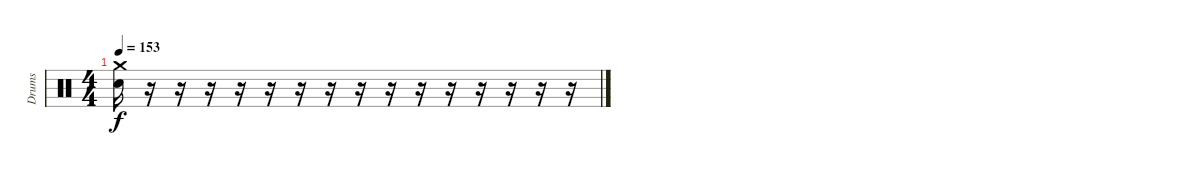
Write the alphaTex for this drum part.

\track ("Drums" "Drums") {instrument percussion}
\staff {score}
\articulation defaults
\ts (4 4)
\tempo 153
\clef neutral
\ks c
("Crash medium (hit)" "Electric Snare (hit)").16{dy f} r.16 r.16 r.16 r.16 r.16 r.16 r.16 r.16 r.16 r.16 r.16 r.16 r.16 r.16 r.16
